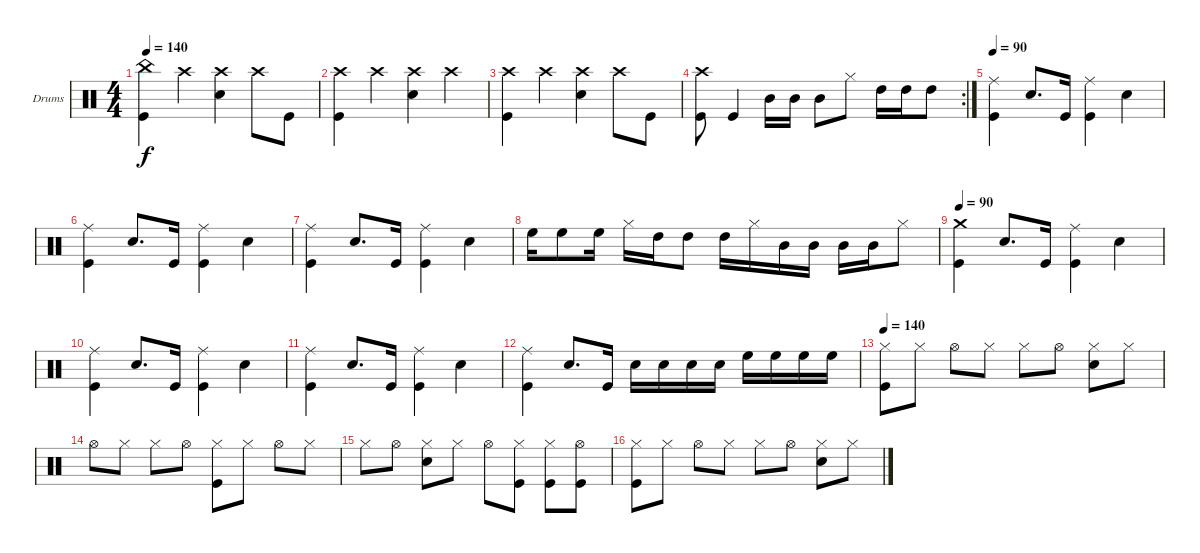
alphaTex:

\bracketExtendMode groupsimilarinstruments
\firstSystemTrackNameOrientation horizontal
\otherSystemsTrackNameOrientation horizontal
\track ("Drumkit" "Drums") {instrument percussion}
\staff {score}
\articulation defaults
\ts (4 4)
\tempo 140
\clef neutral
\ks c
("Kick (hit)" "China (hit)").4{dy f} "Crash high (hit)".4 ("Snare (hit) 2" "Crash high (hit)").4 "Crash high (hit)".8 "Kick (hit)".8 |
("Kick (hit)" "Crash high (hit)").4 "Crash high (hit)".4 ("Snare (hit) 2" "Crash high (hit)").4 "Crash high (hit)".4 |
("Kick (hit)" "Crash high (hit)").4 "Crash high (hit)".4 ("Snare (hit) 2" "Crash high (hit)").4 "Crash high (hit)".8 "Kick (hit)".8 |
\rc 2
("Kick (hit)" "Crash high (hit)").8 "Kick (hit)".4 "Mid Tom (hit)".16 "Mid Tom (hit)".16 "Mid Tom (hit)".8 "Hi-Hat (closed)".8 "High Tom (hit)".16 "High Tom (hit)".16 "High Tom (hit)".8 |
\tempo 90
("Kick (hit)" "Ride (middle)").4 "Snare (hit) 2".8{d} "Kick (hit)".16 ("Kick (hit)" "Ride (middle)").4 "Snare (hit) 2".4 |
("Kick (hit)" "Ride (middle)").4 "Snare (hit) 2".8{d} "Kick (hit)".16 ("Kick (hit)" "Ride (middle)").4 "Snare (hit) 2".4 |
("Kick (hit)" "Ride (middle)").4 "Snare (hit) 2".8{d} "Kick (hit)".16 ("Kick (hit)" "Ride (middle)").4 "Snare (hit) 2".4 |
"High Floor Tom (hit)".16 "High Floor Tom (hit)".8 "High Floor Tom (hit)".16 "Hi-Hat (closed)".16 "High Tom (hit)".16 "High Tom (hit)".8 "High Tom (hit)".16 "Hi-Hat (closed)".16 "Mid Tom (hit)".16 "Mid Tom (hit)".16 "Mid Tom (hit)".16 "Mid Tom (hit)".16 "Hi-Hat (closed)".8 |
\tempo 90
("Kick (hit)" "Crash medium (hit)").4 "Snare (hit) 2".8{d} "Kick (hit)".16 ("Kick (hit)" "Ride (middle)").4 "Snare (hit) 2".4 |
("Kick (hit)" "Ride (middle)").4 "Snare (hit) 2".8{d} "Kick (hit)".16 ("Kick (hit)" "Ride (middle)").4 "Snare (hit) 2".4 |
("Kick (hit)" "Ride (middle)").4 "Snare (hit) 2".8{d} "Kick (hit)".16 ("Kick (hit)" "Ride (middle)").4 "Snare (hit) 2".4 |
("Kick (hit)" "Ride (middle)").4 "Snare (hit) 2".8{d} "Kick (hit)".16 "Snare (hit) 2".16 "Snare (hit) 2".16 "Snare (hit) 2".16 "Snare (hit) 2".16 "High Floor Tom (hit)".16 "High Floor Tom (hit)".16 "High Floor Tom (hit)".16 "High Floor Tom (hit)".16 |
\tempo 140
("Kick (hit)" "Hi-Hat (closed)").8 "Hi-Hat (closed)".8 "Hi-Hat (open)".8 "Hi-Hat (closed)".8 "Hi-Hat (closed)".8 "Hi-Hat (open)".8 ("Snare (hit) 2" "Hi-Hat (closed)").8 "Hi-Hat (closed)".8 |
"Hi-Hat (open)".8 "Hi-Hat (closed)".8 "Hi-Hat (closed)".8 "Hi-Hat (open)".8 ("Kick (hit)" "Hi-Hat (closed)").8 "Hi-Hat (closed)".8 "Hi-Hat (open)".8 "Hi-Hat (closed)".8 |
"Hi-Hat (closed)".8 "Hi-Hat (open)".8 ("Snare (hit) 2" "Hi-Hat (closed)").8 "Hi-Hat (closed)".8 "Hi-Hat (open)".8 ("Kick (hit)" "Hi-Hat (closed)").8 ("Kick (hit)" "Hi-Hat (closed)").8 ("Kick (hit)" "Hi-Hat (open)").8 |
("Kick (hit)" "Hi-Hat (closed)").8 "Hi-Hat (closed)".8 "Hi-Hat (open)".8 "Hi-Hat (closed)".8 "Hi-Hat (closed)".8 "Hi-Hat (open)".8 ("Snare (hit) 2" "Hi-Hat (closed)").8 "Hi-Hat (closed)".8
